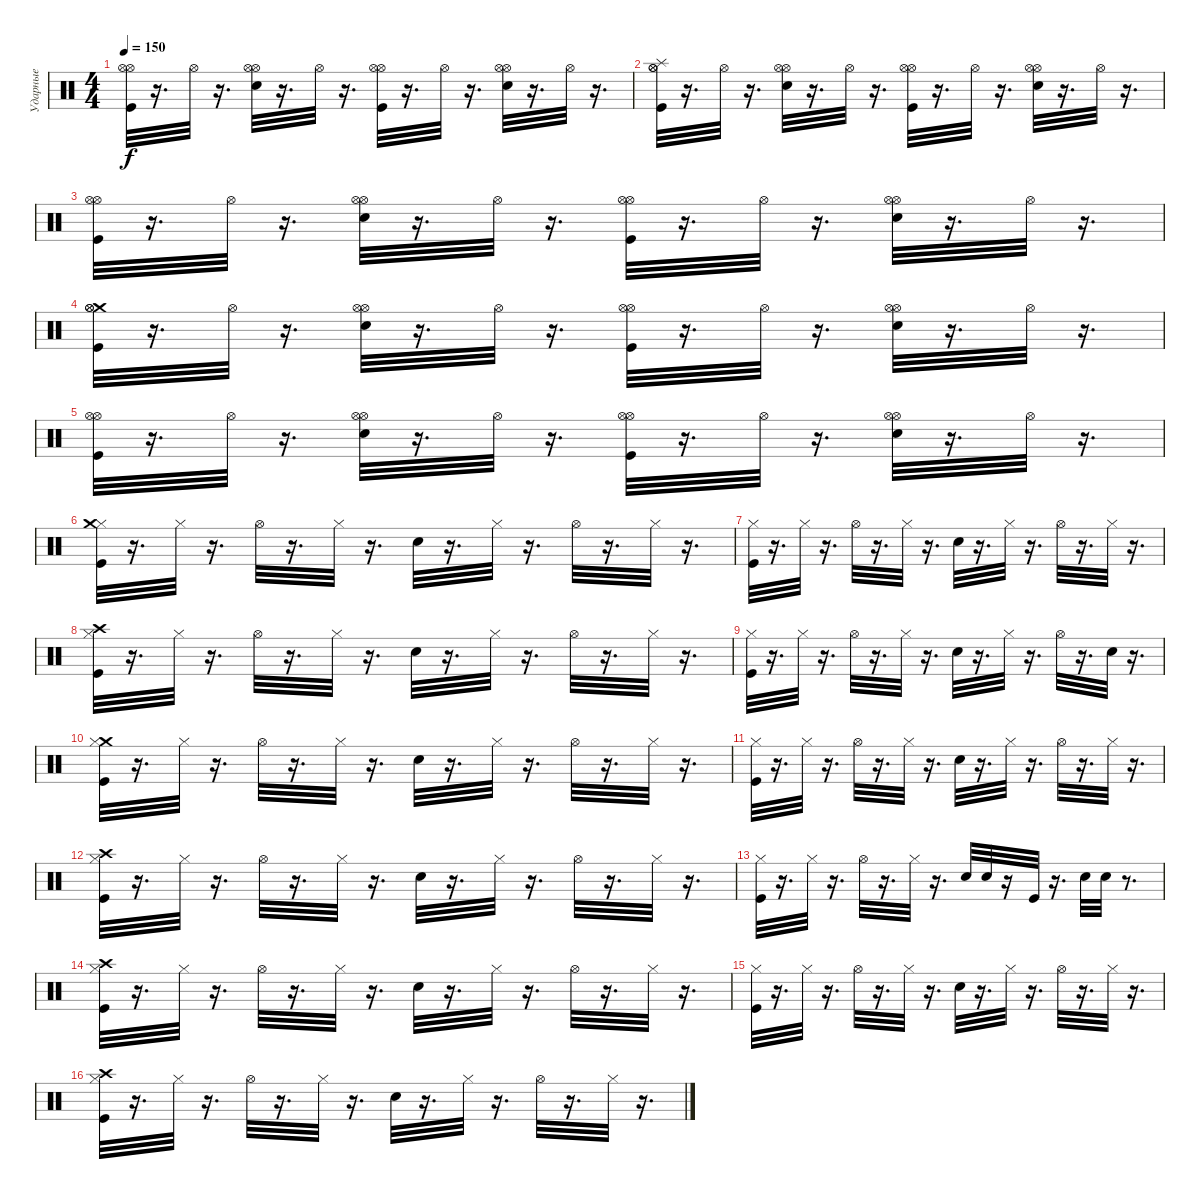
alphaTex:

\track ("Ударные" "Ударные") {instrument percussion}
\staff {score}
\articulation defaults
\ts (4 4)
\tempo 150
\clef neutral
\ks c
("Kick (hit)" "Hi-Hat (open)" "Hi-Hat (open)").32{dy f} r.16{d} "Hi-Hat (open)".32 r.16{d} ("Snare (hit) 2" "Hi-Hat (open)" "Hi-Hat (open)").32 r.16{d} "Hi-Hat (open)".32 r.16{d} ("Kick (hit)" "Hi-Hat (open)" "Hi-Hat (open)").32 r.16{d} "Hi-Hat (open)".32 r.16{d} ("Hi-Hat (open)" "Snare (hit) 2" "Hi-Hat (open)").32 r.16{d} "Hi-Hat (open)".32 r.16{d} |
("Splash (hit)" "Hi-Hat (open)" "Kick (hit)" "Hi-Hat (open)").32 r.16{d} "Hi-Hat (open)".32 r.16{d} ("Hi-Hat (open)" "Hi-Hat (open)" "Snare (hit) 2").32 r.16{d} "Hi-Hat (open)".32 r.16{d} ("Hi-Hat (open)" "Hi-Hat (open)" "Kick (hit)").32 r.16{d} "Hi-Hat (open)".32 r.16{d} ("Snare (hit) 2" "Hi-Hat (open)" "Hi-Hat (open)").32 r.16{d} "Hi-Hat (open)".32 r.16{d} |
("Kick (hit)" "Hi-Hat (open)" "Hi-Hat (open)").32 r.16{d} "Hi-Hat (open)".32 r.16{d} ("Snare (hit) 2" "Hi-Hat (open)" "Hi-Hat (open)").32 r.16{d} "Hi-Hat (open)".32 r.16{d} ("Hi-Hat (open)" "Kick (hit)" "Hi-Hat (open)").32 r.16{d} "Hi-Hat (open)".32 r.16{d} ("Hi-Hat (open)" "Snare (hit) 2" "Hi-Hat (open)").32 r.16{d} "Hi-Hat (open)".32 r.16{d} |
("Crash medium (hit)" "Kick (hit)" "Hi-Hat (open)" "Hi-Hat (open)").32 r.16{d} "Hi-Hat (open)".32 r.16{d} ("Hi-Hat (open)" "Hi-Hat (open)" "Snare (hit) 2").32 r.16{d} "Hi-Hat (open)".32 r.16{d} ("Kick (hit)" "Hi-Hat (open)" "Hi-Hat (open)").32 r.16{d} "Hi-Hat (open)".32 r.16{d} ("Snare (hit) 2" "Hi-Hat (open)" "Hi-Hat (open)").32 r.16{d} "Hi-Hat (open)".32 r.16{d} |
("Kick (hit)" "Hi-Hat (open)" "Hi-Hat (open)").32 r.16{d} "Hi-Hat (open)".32 r.16{d} ("Hi-Hat (open)" "Snare (hit) 2" "Hi-Hat (open)").32 r.16{d} "Hi-Hat (open)".32 r.16{d} ("Kick (hit)" "Hi-Hat (open)" "Hi-Hat (open)").32 r.16{d} "Hi-Hat (open)".32 r.16{d} ("Snare (hit) 2" "Hi-Hat (open)" "Hi-Hat (open)").32 r.16{d} "Hi-Hat (open)".32 r.16{d} |
("Hi-Hat (closed)" "Kick (hit)" "Crash medium (hit)").32 r.16{d} "Hi-Hat (closed)".32 r.16{d} "Hi-Hat (open)".32 r.16{d} "Hi-Hat (closed)".32 r.16{d} "Snare (hit) 2".32 r.16{d} "Hi-Hat (closed)".32 r.16{d} "Hi-Hat (open)".32 r.16{d} "Hi-Hat (closed)".32 r.16{d} |
("Hi-Hat (closed)" "Kick (hit)").32 r.16{d} "Hi-Hat (closed)".32 r.16{d} "Hi-Hat (open)".32 r.16{d} "Hi-Hat (closed)".32 r.16{d} "Snare (hit) 2".32 r.16{d} "Hi-Hat (closed)".32 r.16{d} "Hi-Hat (open)".32 r.16{d} "Hi-Hat (closed)".32 r.16{d} |
("Hi-Hat (closed)" "Crash high (hit)" "Kick (hit)").32 r.16{d} "Hi-Hat (closed)".32 r.16{d} "Hi-Hat (open)".32 r.16{d} "Hi-Hat (closed)".32 r.16{d} "Snare (hit) 2".32 r.16{d} "Hi-Hat (closed)".32 r.16{d} "Hi-Hat (open)".32 r.16{d} "Hi-Hat (closed)".32 r.16{d} |
("Hi-Hat (closed)" "Kick (hit)").32 r.16{d} "Hi-Hat (closed)".32 r.16{d} "Hi-Hat (open)".32 r.16{d} "Hi-Hat (closed)".32 r.16{d} "Snare (hit) 2".32 r.16{d} "Hi-Hat (closed)".32 r.16{d} "Hi-Hat (open)".32 r.16{d} "Snare (hit) 2".32 r.16{d} |
("Crash medium (hit)" "Hi-Hat (closed)" "Kick (hit)").32 r.16{d} "Hi-Hat (closed)".32 r.16{d} "Hi-Hat (open)".32 r.16{d} "Hi-Hat (closed)".32 r.16{d} "Snare (hit) 2".32 r.16{d} "Hi-Hat (closed)".32 r.16{d} "Hi-Hat (open)".32 r.16{d} "Hi-Hat (closed)".32 r.16{d} |
("Hi-Hat (closed)" "Kick (hit)").32 r.16{d} "Hi-Hat (closed)".32 r.16{d} "Hi-Hat (open)".32 r.16{d} "Hi-Hat (closed)".32 r.16{d} "Snare (hit) 2".32 r.16{d} "Hi-Hat (closed)".32 r.16{d} "Hi-Hat (open)".32 r.16{d} "Hi-Hat (closed)".32 r.16{d} |
("Crash high (hit)" "Hi-Hat (closed)" "Kick (hit)").32 r.16{d} "Hi-Hat (closed)".32 r.16{d} "Hi-Hat (open)".32 r.16{d} "Hi-Hat (closed)".32 r.16{d} "Snare (hit) 2".32 r.16{d} "Hi-Hat (closed)".32 r.16{d} "Hi-Hat (open)".32 r.16{d} "Hi-Hat (closed)".32 r.16{d} |
("Hi-Hat (closed)" "Kick (hit)").32 r.16{d} "Hi-Hat (closed)".32 r.16{d} "Hi-Hat (open)".32 r.16{d} "Hi-Hat (closed)".32 r.16{d} "Snare (hit) 2".32 "Snare (hit) 2".32 r.16 "Kick (hit)".32 r.16{d} "Snare (hit) 2".32 "Snare (hit) 2".32 r.8{d} |
("Hi-Hat (closed)" "Crash high (hit)" "Kick (hit)").32 r.16{d} "Hi-Hat (closed)".32 r.16{d} "Hi-Hat (open)".32 r.16{d} "Hi-Hat (closed)".32 r.16{d} "Snare (hit) 2".32 r.16{d} "Hi-Hat (closed)".32 r.16{d} "Hi-Hat (open)".32 r.16{d} "Hi-Hat (closed)".32 r.16{d} |
("Hi-Hat (closed)" "Kick (hit)").32 r.16{d} "Hi-Hat (closed)".32 r.16{d} "Hi-Hat (open)".32 r.16{d} "Hi-Hat (closed)".32 r.16{d} "Snare (hit) 2".32 r.16{d} "Hi-Hat (closed)".32 r.16{d} "Hi-Hat (open)".32 r.16{d} "Hi-Hat (closed)".32 r.16{d} |
("Crash high (hit)" "Hi-Hat (closed)" "Kick (hit)").32 r.16{d} "Hi-Hat (closed)".32 r.16{d} "Hi-Hat (open)".32 r.16{d} "Hi-Hat (closed)".32 r.16{d} "Snare (hit) 2".32 r.16{d} "Hi-Hat (closed)".32 r.16{d} "Hi-Hat (open)".32 r.16{d} "Hi-Hat (closed)".32 r.16{d}
